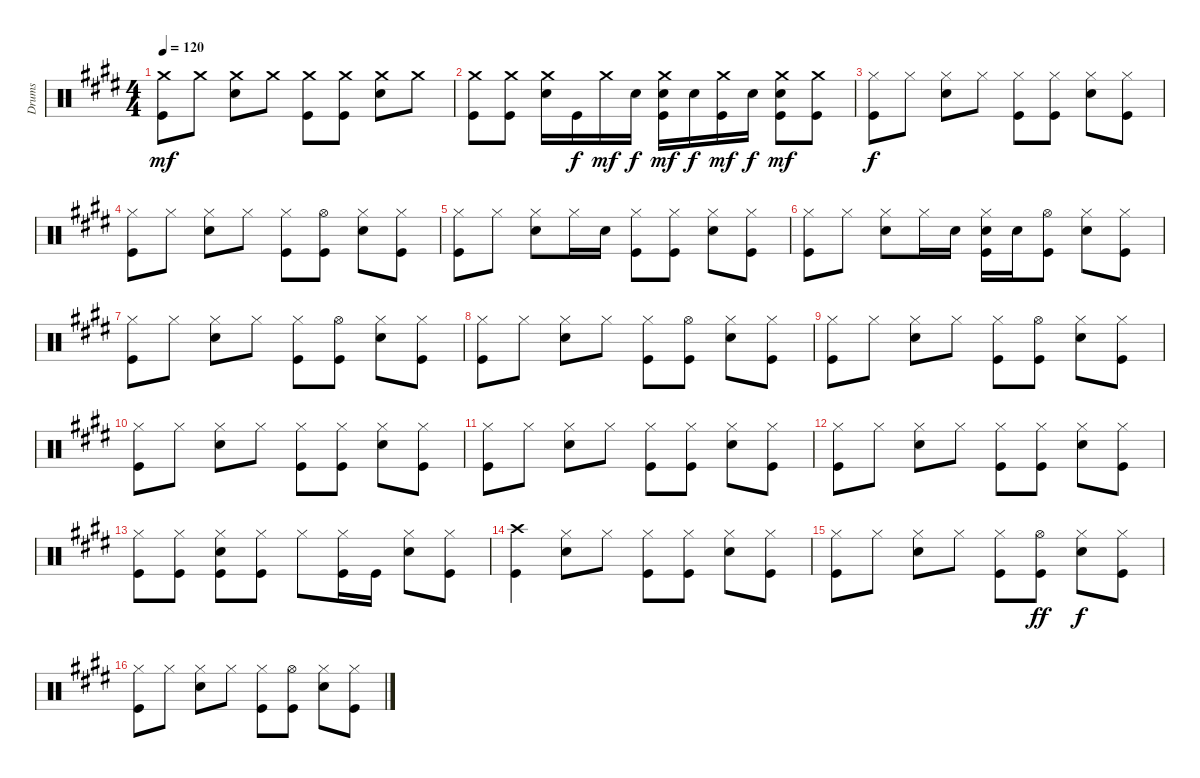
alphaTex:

\track ("Drums" "Drums") {instrument percussion}
\staff {score}
\articulation defaults
\ts (4 4)
\tempo 120
\clef neutral
\ks e
("Crash medium (hit)" "Kick (hit)").8{dy mf} "Crash medium (hit)".8 ("Crash medium (hit)" "Snare (hit) 2").8 "Crash medium (hit)".8 ("Crash medium (hit)" "Kick (hit)").8 ("Crash medium (hit)" "Kick (hit)").8 ("Crash medium (hit)" "Snare (hit) 2").8 "Crash medium (hit)".8 |
("Crash medium (hit)" "Kick (hit)").8 ("Crash medium (hit)" "Kick (hit)").8 ("Crash medium (hit)" "Snare (hit) 2").16 "Kick (hit)".16{dy f} "Crash medium (hit)".16{dy mf} "Snare (hit) 2".16{dy f} ("Crash medium (hit)" "Snare (hit) 2" "Kick (hit)").16{dy mf} "Snare (hit) 2".16{dy f} ("Crash medium (hit)" "Kick (hit)").16{dy mf} "Snare (hit) 2".16{dy f} ("Crash medium (hit)" "Snare (hit) 2" "Kick (hit)").8{dy mf} ("Crash medium (hit)" "Kick (hit)").8 |
("Hi-Hat (closed)" "Kick (hit)").8{dy f} "Hi-Hat (closed)".8 ("Hi-Hat (closed)" "Snare (hit) 2").8 "Hi-Hat (closed)".8 ("Hi-Hat (closed)" "Kick (hit)").8 ("Hi-Hat (closed)" "Kick (hit)").8 ("Hi-Hat (closed)" "Snare (hit) 2").8 ("Hi-Hat (closed)" "Kick (hit)").8 |
("Hi-Hat (closed)" "Kick (hit)").8 "Hi-Hat (closed)".8 ("Hi-Hat (closed)" "Snare (hit) 2").8 "Hi-Hat (closed)".8 ("Hi-Hat (closed)" "Kick (hit)").8 ("Hi-Hat (open)" "Kick (hit)").8 ("Hi-Hat (closed)" "Snare (hit) 2").8 ("Hi-Hat (closed)" "Kick (hit)").8 |
("Hi-Hat (closed)" "Kick (hit)").8 "Hi-Hat (closed)".8 ("Hi-Hat (closed)" "Snare (hit) 2").8 "Hi-Hat (closed)".16 "Snare (hit) 2".16 ("Hi-Hat (closed)" "Kick (hit)").8 ("Hi-Hat (closed)" "Kick (hit)").8 ("Hi-Hat (closed)" "Snare (hit) 2").8 ("Hi-Hat (closed)" "Kick (hit)").8 |
("Hi-Hat (closed)" "Kick (hit)").8 "Hi-Hat (closed)".8 ("Hi-Hat (closed)" "Snare (hit) 2").8 "Hi-Hat (closed)".16 "Snare (hit) 2".16 ("Hi-Hat (closed)" "Snare (hit) 2" "Kick (hit)").16 "Snare (hit) 2".16 ("Hi-Hat (open)" "Kick (hit)").8 ("Hi-Hat (closed)" "Snare (hit) 2").8 ("Hi-Hat (closed)" "Kick (hit)").8 |
("Hi-Hat (closed)" "Kick (hit)").8 "Hi-Hat (closed)".8 ("Hi-Hat (closed)" "Snare (hit) 2").8 "Hi-Hat (closed)".8 ("Hi-Hat (closed)" "Kick (hit)").8 ("Hi-Hat (open)" "Kick (hit)").8 ("Hi-Hat (closed)" "Snare (hit) 2").8 ("Hi-Hat (closed)" "Kick (hit)").8 |
("Hi-Hat (closed)" "Kick (hit)").8 "Hi-Hat (closed)".8 ("Hi-Hat (closed)" "Snare (hit) 2").8 "Hi-Hat (closed)".8 ("Hi-Hat (closed)" "Kick (hit)").8 ("Hi-Hat (open)" "Kick (hit)").8 ("Hi-Hat (closed)" "Snare (hit) 2").8 ("Hi-Hat (closed)" "Kick (hit)").8 |
("Hi-Hat (closed)" "Kick (hit)").8 "Hi-Hat (closed)".8 ("Hi-Hat (closed)" "Snare (hit) 2").8 "Hi-Hat (closed)".8 ("Hi-Hat (closed)" "Kick (hit)").8 ("Hi-Hat (open)" "Kick (hit)").8 ("Hi-Hat (closed)" "Snare (hit) 2").8 ("Hi-Hat (closed)" "Kick (hit)").8 |
("Hi-Hat (closed)" "Kick (hit)").8 "Hi-Hat (closed)".8 ("Hi-Hat (closed)" "Snare (hit) 2").8 "Hi-Hat (closed)".8 ("Hi-Hat (closed)" "Kick (hit)").8 ("Hi-Hat (closed)" "Kick (hit)").8 ("Hi-Hat (closed)" "Snare (hit) 2").8 ("Hi-Hat (closed)" "Kick (hit)").8 |
("Hi-Hat (closed)" "Kick (hit)").8 "Hi-Hat (closed)".8 ("Hi-Hat (closed)" "Snare (hit) 2").8 "Hi-Hat (closed)".8 ("Hi-Hat (closed)" "Kick (hit)").8 ("Hi-Hat (closed)" "Kick (hit)").8 ("Hi-Hat (closed)" "Snare (hit) 2").8 ("Hi-Hat (closed)" "Kick (hit)").8 |
("Hi-Hat (closed)" "Kick (hit)").8 "Hi-Hat (closed)".8 ("Hi-Hat (closed)" "Snare (hit) 2").8 "Hi-Hat (closed)".8 ("Hi-Hat (closed)" "Kick (hit)").8 ("Hi-Hat (closed)" "Kick (hit)").8 ("Hi-Hat (closed)" "Snare (hit) 2").8 ("Hi-Hat (closed)" "Kick (hit)").8 |
("Hi-Hat (closed)" "Kick (hit)").8 ("Hi-Hat (closed)" "Kick (hit)").8 ("Hi-Hat (closed)" "Snare (hit) 2" "Kick (hit)").8 ("Hi-Hat (closed)" "Kick (hit)").8 "Hi-Hat (closed)".8 ("Hi-Hat (closed)" "Kick (hit)").16 "Kick (hit)".16 ("Hi-Hat (closed)" "Snare (hit) 2").8 ("Hi-Hat (closed)" "Kick (hit)").8 |
("Crash high (hit)" "Kick (hit)").4 ("Hi-Hat (closed)" "Snare (hit) 2").8 "Hi-Hat (closed)".8 ("Hi-Hat (closed)" "Kick (hit)").8 ("Hi-Hat (closed)" "Kick (hit)").8 ("Hi-Hat (closed)" "Snare (hit) 2").8 ("Hi-Hat (closed)" "Kick (hit)").8 |
("Hi-Hat (closed)" "Kick (hit)").8 "Hi-Hat (closed)".8 ("Hi-Hat (closed)" "Snare (hit) 2").8 "Hi-Hat (closed)".8 ("Hi-Hat (closed)" "Kick (hit)").8 ("Hi-Hat (open)" "Kick (hit)").8{dy ff} ("Hi-Hat (closed)" "Snare (hit) 2").8{dy f} ("Hi-Hat (closed)" "Kick (hit)").8 |
("Hi-Hat (closed)" "Kick (hit)").8 "Hi-Hat (closed)".8 ("Hi-Hat (closed)" "Snare (hit) 2").8 "Hi-Hat (closed)".8 ("Hi-Hat (closed)" "Kick (hit)").8 ("Hi-Hat (open)" "Kick (hit)").8 ("Hi-Hat (closed)" "Snare (hit) 2").8 ("Hi-Hat (closed)" "Kick (hit)").8
